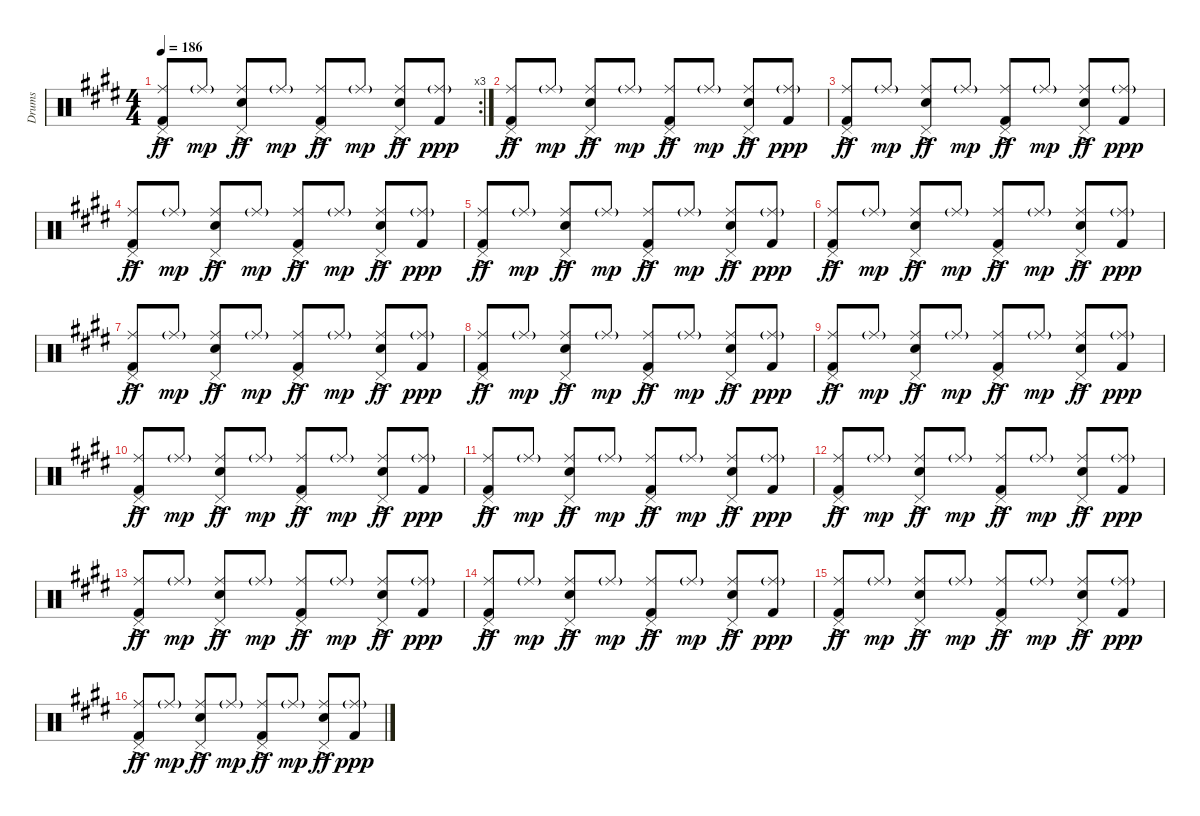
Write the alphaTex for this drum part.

\track ("Drums" "Drums") {instrument percussion}
\staff {score}
\articulation defaults
\rc 3
\ts (4 4)
\tempo 186
\clef neutral
\ks e
("Pedal Hi-Hat (hit)" "Ride (middle)" "Kick (hit) 2"{ac}).8{dy ff} "Ride (middle)"{g}.8{dy mp} ("Pedal Hi-Hat (hit)" "Ride (middle)" "Snare (hit) 2"{ac}).8{dy ff} "Ride (middle)"{g}.8{dy mp} ("Pedal Hi-Hat (hit)" "Ride (middle)" "Kick (hit) 2"{ac}).8{dy ff} "Ride (middle)"{g}.8{dy mp} ("Pedal Hi-Hat (hit)" "Ride (middle)" "Snare (hit) 2"{ac}).8{dy ff} ("Ride (middle)"{g} "Kick (hit) 2").8{dy ppp} |
("Pedal Hi-Hat (hit)" "Ride (middle)" "Kick (hit) 2"{ac}).8{dy ff} "Ride (middle)"{g}.8{dy mp} ("Pedal Hi-Hat (hit)" "Ride (middle)" "Snare (hit) 2"{ac}).8{dy ff} "Ride (middle)"{g}.8{dy mp} ("Pedal Hi-Hat (hit)" "Ride (middle)" "Kick (hit) 2"{ac}).8{dy ff} "Ride (middle)"{g}.8{dy mp} ("Pedal Hi-Hat (hit)" "Ride (middle)" "Snare (hit) 2"{ac}).8{dy ff} ("Ride (middle)"{g} "Kick (hit) 2").8{dy ppp} |
("Pedal Hi-Hat (hit)" "Ride (middle)" "Kick (hit) 2"{ac}).8{dy ff} "Ride (middle)"{g}.8{dy mp} ("Pedal Hi-Hat (hit)" "Ride (middle)" "Snare (hit) 2"{ac}).8{dy ff} "Ride (middle)"{g}.8{dy mp} ("Pedal Hi-Hat (hit)" "Ride (middle)" "Kick (hit) 2"{ac}).8{dy ff} "Ride (middle)"{g}.8{dy mp} ("Pedal Hi-Hat (hit)" "Ride (middle)" "Snare (hit) 2"{ac}).8{dy ff} ("Ride (middle)"{g} "Kick (hit) 2").8{dy ppp} |
("Pedal Hi-Hat (hit)" "Ride (middle)" "Kick (hit) 2"{ac}).8{dy ff} "Ride (middle)"{g}.8{dy mp} ("Pedal Hi-Hat (hit)" "Ride (middle)" "Snare (hit) 2"{ac}).8{dy ff} "Ride (middle)"{g}.8{dy mp} ("Pedal Hi-Hat (hit)" "Ride (middle)" "Kick (hit) 2"{ac}).8{dy ff} "Ride (middle)"{g}.8{dy mp} ("Pedal Hi-Hat (hit)" "Ride (middle)" "Snare (hit) 2"{ac}).8{dy ff} ("Ride (middle)"{g} "Kick (hit) 2").8{dy ppp} |
("Pedal Hi-Hat (hit)" "Ride (middle)" "Kick (hit) 2"{ac}).8{dy ff} "Ride (middle)"{g}.8{dy mp} ("Pedal Hi-Hat (hit)" "Ride (middle)" "Snare (hit) 2"{ac}).8{dy ff} "Ride (middle)"{g}.8{dy mp} ("Pedal Hi-Hat (hit)" "Ride (middle)" "Kick (hit) 2"{ac}).8{dy ff} "Ride (middle)"{g}.8{dy mp} ("Pedal Hi-Hat (hit)" "Ride (middle)" "Snare (hit) 2"{ac}).8{dy ff} ("Ride (middle)"{g} "Kick (hit) 2").8{dy ppp} |
("Pedal Hi-Hat (hit)" "Ride (middle)" "Kick (hit) 2"{ac}).8{dy ff} "Ride (middle)"{g}.8{dy mp} ("Pedal Hi-Hat (hit)" "Ride (middle)" "Snare (hit) 2"{ac}).8{dy ff} "Ride (middle)"{g}.8{dy mp} ("Pedal Hi-Hat (hit)" "Ride (middle)" "Kick (hit) 2"{ac}).8{dy ff} "Ride (middle)"{g}.8{dy mp} ("Pedal Hi-Hat (hit)" "Ride (middle)" "Snare (hit) 2"{ac}).8{dy ff} ("Ride (middle)"{g} "Kick (hit) 2").8{dy ppp} |
("Pedal Hi-Hat (hit)" "Ride (middle)" "Kick (hit) 2"{ac}).8{dy ff} "Ride (middle)"{g}.8{dy mp} ("Pedal Hi-Hat (hit)" "Ride (middle)" "Snare (hit) 2"{ac}).8{dy ff} "Ride (middle)"{g}.8{dy mp} ("Pedal Hi-Hat (hit)" "Ride (middle)" "Kick (hit) 2"{ac}).8{dy ff} "Ride (middle)"{g}.8{dy mp} ("Pedal Hi-Hat (hit)" "Ride (middle)" "Snare (hit) 2"{ac}).8{dy ff} ("Ride (middle)"{g} "Kick (hit) 2").8{dy ppp} |
("Pedal Hi-Hat (hit)" "Ride (middle)" "Kick (hit) 2"{ac}).8{dy ff} "Ride (middle)"{g}.8{dy mp} ("Pedal Hi-Hat (hit)" "Ride (middle)" "Snare (hit) 2"{ac}).8{dy ff} "Ride (middle)"{g}.8{dy mp} ("Pedal Hi-Hat (hit)" "Ride (middle)" "Kick (hit) 2"{ac}).8{dy ff} "Ride (middle)"{g}.8{dy mp} ("Pedal Hi-Hat (hit)" "Ride (middle)" "Snare (hit) 2"{ac}).8{dy ff} ("Ride (middle)"{g} "Kick (hit) 2").8{dy ppp} |
("Pedal Hi-Hat (hit)" "Ride (middle)" "Kick (hit) 2"{ac}).8{dy ff} "Ride (middle)"{g}.8{dy mp} ("Pedal Hi-Hat (hit)" "Ride (middle)" "Snare (hit) 2"{ac}).8{dy ff} "Ride (middle)"{g}.8{dy mp} ("Pedal Hi-Hat (hit)" "Ride (middle)" "Kick (hit) 2"{ac}).8{dy ff} "Ride (middle)"{g}.8{dy mp} ("Pedal Hi-Hat (hit)" "Ride (middle)" "Snare (hit) 2"{ac}).8{dy ff} ("Ride (middle)"{g} "Kick (hit) 2").8{dy ppp} |
("Pedal Hi-Hat (hit)" "Ride (middle)" "Kick (hit) 2"{ac}).8{dy ff} "Ride (middle)"{g}.8{dy mp} ("Pedal Hi-Hat (hit)" "Ride (middle)" "Snare (hit) 2"{ac}).8{dy ff} "Ride (middle)"{g}.8{dy mp} ("Pedal Hi-Hat (hit)" "Ride (middle)" "Kick (hit) 2"{ac}).8{dy ff} "Ride (middle)"{g}.8{dy mp} ("Pedal Hi-Hat (hit)" "Ride (middle)" "Snare (hit) 2"{ac}).8{dy ff} ("Ride (middle)"{g} "Kick (hit) 2").8{dy ppp} |
("Pedal Hi-Hat (hit)" "Ride (middle)" "Kick (hit) 2"{ac}).8{dy ff} "Ride (middle)"{g}.8{dy mp} ("Pedal Hi-Hat (hit)" "Ride (middle)" "Snare (hit) 2"{ac}).8{dy ff} "Ride (middle)"{g}.8{dy mp} ("Pedal Hi-Hat (hit)" "Ride (middle)" "Kick (hit) 2"{ac}).8{dy ff} "Ride (middle)"{g}.8{dy mp} ("Pedal Hi-Hat (hit)" "Ride (middle)" "Snare (hit) 2"{ac}).8{dy ff} ("Ride (middle)"{g} "Kick (hit) 2").8{dy ppp} |
("Pedal Hi-Hat (hit)" "Ride (middle)" "Kick (hit) 2"{ac}).8{dy ff} "Ride (middle)"{g}.8{dy mp} ("Pedal Hi-Hat (hit)" "Ride (middle)" "Snare (hit) 2"{ac}).8{dy ff} "Ride (middle)"{g}.8{dy mp} ("Pedal Hi-Hat (hit)" "Ride (middle)" "Kick (hit) 2"{ac}).8{dy ff} "Ride (middle)"{g}.8{dy mp} ("Pedal Hi-Hat (hit)" "Ride (middle)" "Snare (hit) 2"{ac}).8{dy ff} ("Ride (middle)"{g} "Kick (hit) 2").8{dy ppp} |
("Pedal Hi-Hat (hit)" "Ride (middle)" "Kick (hit) 2"{ac}).8{dy ff} "Ride (middle)"{g}.8{dy mp} ("Pedal Hi-Hat (hit)" "Ride (middle)" "Snare (hit) 2"{ac}).8{dy ff} "Ride (middle)"{g}.8{dy mp} ("Pedal Hi-Hat (hit)" "Ride (middle)" "Kick (hit) 2"{ac}).8{dy ff} "Ride (middle)"{g}.8{dy mp} ("Pedal Hi-Hat (hit)" "Ride (middle)" "Snare (hit) 2"{ac}).8{dy ff} ("Ride (middle)"{g} "Kick (hit) 2").8{dy ppp} |
("Pedal Hi-Hat (hit)" "Ride (middle)" "Kick (hit) 2"{ac}).8{dy ff} "Ride (middle)"{g}.8{dy mp} ("Pedal Hi-Hat (hit)" "Ride (middle)" "Snare (hit) 2"{ac}).8{dy ff} "Ride (middle)"{g}.8{dy mp} ("Pedal Hi-Hat (hit)" "Ride (middle)" "Kick (hit) 2"{ac}).8{dy ff} "Ride (middle)"{g}.8{dy mp} ("Pedal Hi-Hat (hit)" "Ride (middle)" "Snare (hit) 2"{ac}).8{dy ff} ("Ride (middle)"{g} "Kick (hit) 2").8{dy ppp} |
("Pedal Hi-Hat (hit)" "Ride (middle)" "Kick (hit) 2"{ac}).8{dy ff} "Ride (middle)"{g}.8{dy mp} ("Pedal Hi-Hat (hit)" "Ride (middle)" "Snare (hit) 2"{ac}).8{dy ff} "Ride (middle)"{g}.8{dy mp} ("Pedal Hi-Hat (hit)" "Ride (middle)" "Kick (hit) 2"{ac}).8{dy ff} "Ride (middle)"{g}.8{dy mp} ("Pedal Hi-Hat (hit)" "Ride (middle)" "Snare (hit) 2"{ac}).8{dy ff} ("Ride (middle)"{g} "Kick (hit) 2").8{dy ppp} |
("Pedal Hi-Hat (hit)" "Ride (middle)" "Kick (hit) 2"{ac}).8{dy ff} "Ride (middle)"{g}.8{dy mp} ("Pedal Hi-Hat (hit)" "Ride (middle)" "Snare (hit) 2"{ac}).8{dy ff} "Ride (middle)"{g}.8{dy mp} ("Pedal Hi-Hat (hit)" "Ride (middle)" "Kick (hit) 2"{ac}).8{dy ff} "Ride (middle)"{g}.8{dy mp} ("Pedal Hi-Hat (hit)" "Ride (middle)" "Snare (hit) 2"{ac}).8{dy ff} ("Ride (middle)"{g} "Kick (hit) 2").8{dy ppp}
